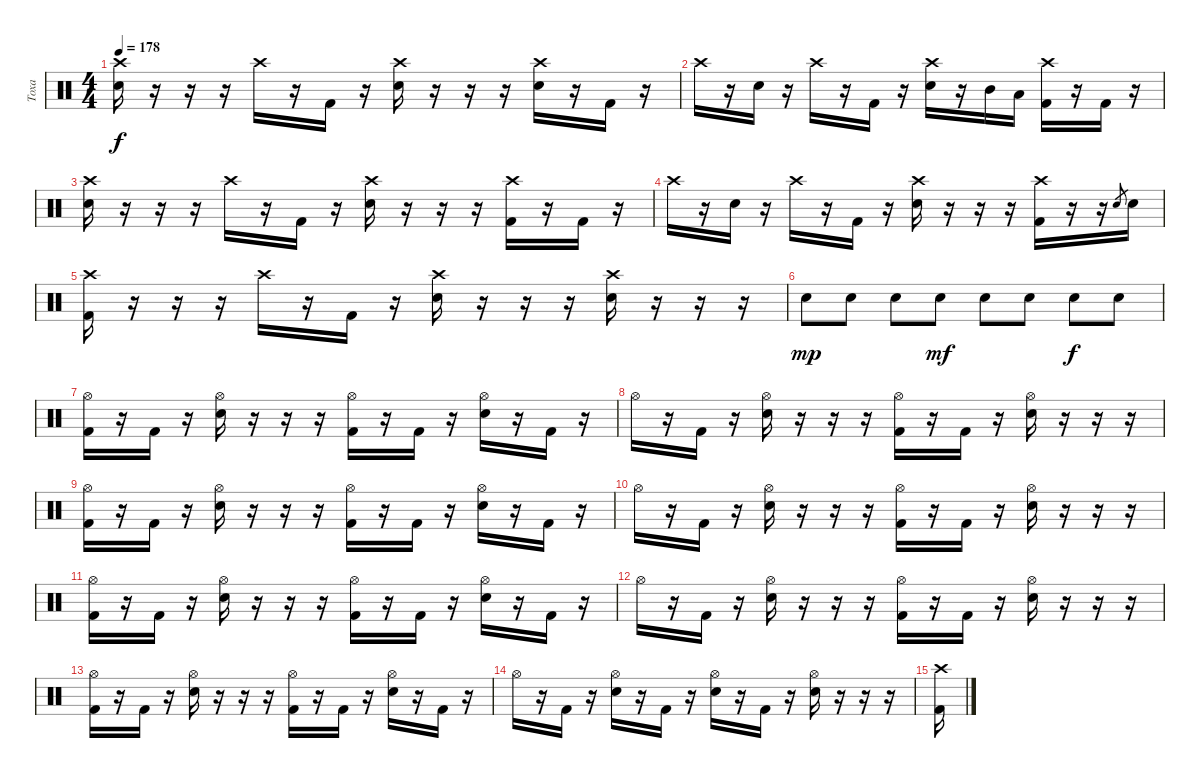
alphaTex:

\track ("Тоха" "Тоха") {instrument percussion}
\staff {score}
\articulation defaults
\ts (4 4)
\tempo 178
\clef neutral
\ks c
("Crash high (hit)" "Electric Snare (hit)").16{dy f} r.16 r.16 r.16 "Crash high (hit)".16 r.16 "Kick (hit) 2".16 r.16 ("Crash high (hit)" "Electric Snare (hit)").16 r.16 r.16 r.16 ("Crash high (hit)" "Electric Snare (hit)").16 r.16 "Kick (hit) 2".16 r.16 |
"Crash high (hit)".16 r.16 "Electric Snare (hit)".16 r.16 "Crash high (hit)".16 r.16 "Kick (hit) 2".16 r.16 ("Crash high (hit)" "Electric Snare (hit)").16 r.16 "Mid Tom (hit)".16 "Low Tom (hit)".16 ("Crash high (hit)" "Kick (hit) 2").16 r.16 "Kick (hit) 2".16 r.16 |
("Crash high (hit)" "Electric Snare (hit)").16 r.16 r.16 r.16 "Crash high (hit)".16 r.16 "Kick (hit) 2".16 r.16 ("Crash high (hit)" "Electric Snare (hit)").16 r.16 r.16 r.16 ("Crash high (hit)" "Kick (hit) 2").16 r.16 "Kick (hit) 2".16 r.16 |
"Crash high (hit)".16 r.16 "Electric Snare (hit)".16 r.16 "Crash high (hit)".16 r.16 "Kick (hit) 2".16 r.16 ("Crash high (hit)" "Electric Snare (hit)").16 r.16 r.16 r.16 ("Crash high (hit)" "Kick (hit) 2").16 r.16 r.16 "Electric Snare (hit)".8{gr} "Electric Snare (hit)".16 |
("Crash high (hit)" "Kick (hit) 2").16 r.16 r.16 r.16 "Crash high (hit)".16 r.16 "Kick (hit) 2".16 r.16 ("Crash high (hit)" "Electric Snare (hit)").16 r.16 r.16 r.16 ("Crash high (hit)" "Electric Snare (hit)").16 r.16 r.16 r.16 |
"Electric Snare (hit)".8{dy mp} "Electric Snare (hit)".8 "Electric Snare (hit)".8 "Electric Snare (hit)".8{dy mf} "Electric Snare (hit)".8 "Electric Snare (hit)".8 "Electric Snare (hit)".8{dy f} "Electric Snare (hit)".8 |
("Hi-Hat (open)" "Kick (hit) 2").16 r.16 "Kick (hit) 2".16 r.16 ("Hi-Hat (open)" "Electric Snare (hit)").16 r.16 r.16 r.16 ("Hi-Hat (open)" "Kick (hit) 2").16 r.16 "Kick (hit) 2".16 r.16 ("Hi-Hat (open)" "Electric Snare (hit)").16 r.16 "Kick (hit) 2".16 r.16 |
"Hi-Hat (open)".16 r.16 "Kick (hit) 2".16 r.16 ("Hi-Hat (open)" "Electric Snare (hit)").16 r.16 r.16 r.16 ("Hi-Hat (open)" "Kick (hit) 2").16 r.16 "Kick (hit) 2".16 r.16 ("Hi-Hat (open)" "Electric Snare (hit)").16 r.16 r.16 r.16 |
("Hi-Hat (open)" "Kick (hit) 2").16 r.16 "Kick (hit) 2".16 r.16 ("Hi-Hat (open)" "Electric Snare (hit)").16 r.16 r.16 r.16 ("Hi-Hat (open)" "Kick (hit) 2").16 r.16 "Kick (hit) 2".16 r.16 ("Hi-Hat (open)" "Electric Snare (hit)").16 r.16 "Kick (hit) 2".16 r.16 |
"Hi-Hat (open)".16 r.16 "Kick (hit) 2".16 r.16 ("Hi-Hat (open)" "Electric Snare (hit)").16 r.16 r.16 r.16 ("Hi-Hat (open)" "Kick (hit) 2").16 r.16 "Kick (hit) 2".16 r.16 ("Hi-Hat (open)" "Electric Snare (hit)").16 r.16 r.16 r.16 |
("Hi-Hat (open)" "Kick (hit) 2").16 r.16 "Kick (hit) 2".16 r.16 ("Hi-Hat (open)" "Electric Snare (hit)").16 r.16 r.16 r.16 ("Hi-Hat (open)" "Kick (hit) 2").16 r.16 "Kick (hit) 2".16 r.16 ("Hi-Hat (open)" "Electric Snare (hit)").16 r.16 "Kick (hit) 2".16 r.16 |
"Hi-Hat (open)".16 r.16 "Kick (hit) 2".16 r.16 ("Hi-Hat (open)" "Electric Snare (hit)").16 r.16 r.16 r.16 ("Hi-Hat (open)" "Kick (hit) 2").16 r.16 "Kick (hit) 2".16 r.16 ("Hi-Hat (open)" "Electric Snare (hit)").16 r.16 r.16 r.16 |
("Hi-Hat (open)" "Kick (hit) 2").16 r.16 "Kick (hit) 2".16 r.16 ("Hi-Hat (open)" "Electric Snare (hit)").16 r.16 r.16 r.16 ("Hi-Hat (open)" "Kick (hit) 2").16 r.16 "Kick (hit) 2".16 r.16 ("Hi-Hat (open)" "Electric Snare (hit)").16 r.16 "Kick (hit) 2".16 r.16 |
"Hi-Hat (open)".16 r.16 "Kick (hit) 2".16 r.16 ("Hi-Hat (open)" "Electric Snare (hit)").16 r.16 "Kick (hit) 2".16 r.16 ("Hi-Hat (open)" "Electric Snare (hit)").16 r.16 "Kick (hit) 2".16 r.16 ("Hi-Hat (open)" "Electric Snare (hit)").16 r.16 r.16 r.16 |
("Crash high (hit)" "Kick (hit) 2").16
